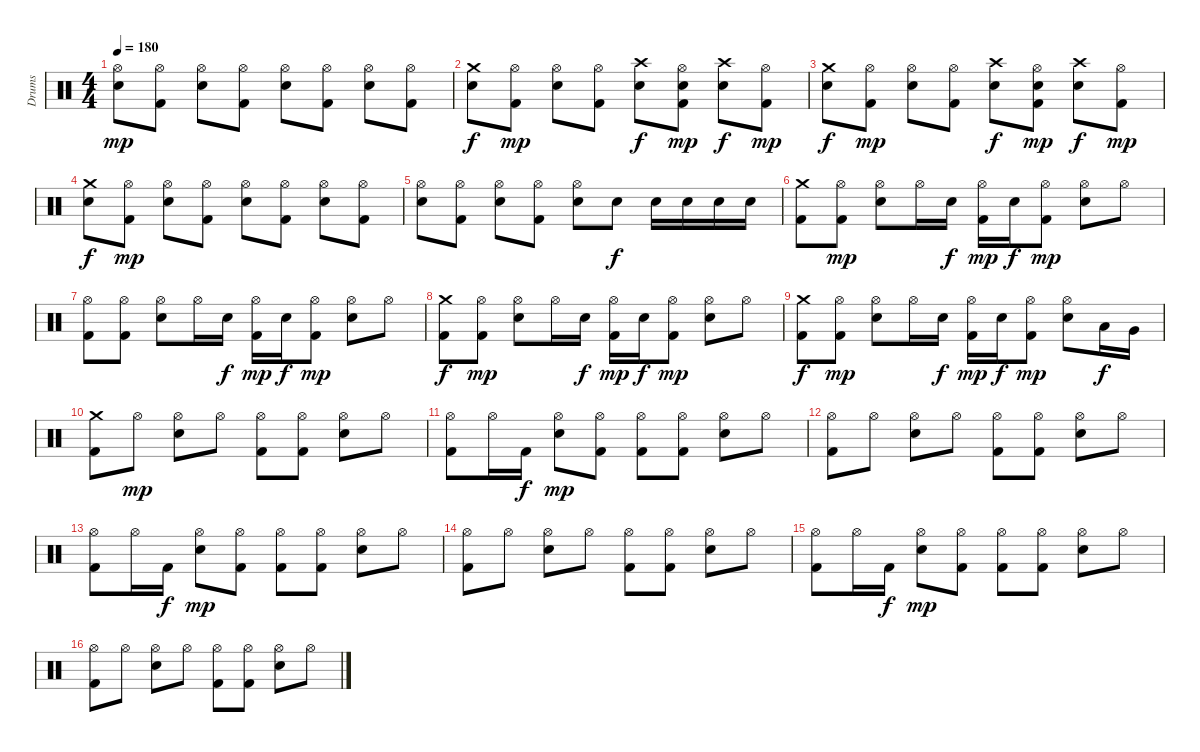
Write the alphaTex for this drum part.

\track ("Drums" "Drums") {instrument percussion}
\staff {score}
\articulation defaults
\ts (4 4)
\tempo 180
\clef neutral
\ks c
("Hi-Hat (open)" "Snare (hit) 2").8{dy mp} ("Hi-Hat (open)" "Kick (hit) 2").8 ("Hi-Hat (open)" "Snare (hit) 2").8 ("Hi-Hat (open)" "Kick (hit) 2").8 ("Hi-Hat (open)" "Snare (hit) 2").8 ("Hi-Hat (open)" "Kick (hit) 2").8 ("Hi-Hat (open)" "Snare (hit) 2").8 ("Hi-Hat (open)" "Kick (hit) 2").8 |
("Crash medium (hit)" "Snare (hit) 2").8{dy f} ("Hi-Hat (open)" "Kick (hit) 2").8{dy mp} ("Hi-Hat (open)" "Snare (hit) 2").8 ("Hi-Hat (open)" "Kick (hit) 2").8 ("Crash high (hit)" "Snare (hit) 2").8{dy f} ("Hi-Hat (open)" "Snare (hit) 2" "Kick (hit) 2").8{dy mp} ("Crash high (hit)" "Snare (hit) 2").8{dy f} ("Hi-Hat (open)" "Kick (hit) 2").8{dy mp} |
("Crash medium (hit)" "Snare (hit) 2").8{dy f} ("Hi-Hat (open)" "Kick (hit) 2").8{dy mp} ("Hi-Hat (open)" "Snare (hit) 2").8 ("Hi-Hat (open)" "Kick (hit) 2").8 ("Crash high (hit)" "Snare (hit) 2").8{dy f} ("Hi-Hat (open)" "Snare (hit) 2" "Kick (hit) 2").8{dy mp} ("Crash high (hit)" "Snare (hit) 2").8{dy f} ("Hi-Hat (open)" "Kick (hit) 2").8{dy mp} |
("Crash medium (hit)" "Snare (hit) 2").8{dy f} ("Hi-Hat (open)" "Kick (hit) 2").8{dy mp} ("Hi-Hat (open)" "Snare (hit) 2").8 ("Hi-Hat (open)" "Kick (hit) 2").8 ("Hi-Hat (open)" "Snare (hit) 2").8 ("Hi-Hat (open)" "Kick (hit) 2").8 ("Hi-Hat (open)" "Snare (hit) 2").8 ("Hi-Hat (open)" "Kick (hit) 2").8 |
("Hi-Hat (open)" "Snare (hit) 2").8 ("Hi-Hat (open)" "Kick (hit) 2").8 ("Hi-Hat (open)" "Snare (hit) 2").8 ("Hi-Hat (open)" "Kick (hit) 2").8 ("Hi-Hat (open)" "Snare (hit) 2").8 "Snare (hit) 2".8{dy f} "Snare (hit) 2".16 "Snare (hit) 2".16 "Snare (hit) 2".16 "Snare (hit) 2".16 |
("Crash medium (hit)" "Kick (hit) 2").8 ("Hi-Hat (open)" "Kick (hit) 2").8{dy mp} ("Hi-Hat (open)" "Snare (hit) 2").8 "Hi-Hat (open)".16 "Snare (hit) 2".16{dy f} ("Hi-Hat (open)" "Kick (hit) 2").16{dy mp} "Snare (hit) 2".16{dy f} ("Hi-Hat (open)" "Kick (hit) 2").8{dy mp} ("Hi-Hat (open)" "Snare (hit) 2").8 "Hi-Hat (open)".8 |
("Hi-Hat (open)" "Kick (hit) 2").8 ("Hi-Hat (open)" "Kick (hit) 2").8 ("Hi-Hat (open)" "Snare (hit) 2").8 "Hi-Hat (open)".16 "Snare (hit) 2".16{dy f} ("Hi-Hat (open)" "Kick (hit) 2").16{dy mp} "Snare (hit) 2".16{dy f} ("Hi-Hat (open)" "Kick (hit) 2").8{dy mp} ("Hi-Hat (open)" "Snare (hit) 2").8 "Hi-Hat (open)".8 |
("Crash medium (hit)" "Kick (hit) 2").8{dy f} ("Hi-Hat (open)" "Kick (hit) 2").8{dy mp} ("Hi-Hat (open)" "Snare (hit) 2").8 "Hi-Hat (open)".16 "Snare (hit) 2".16{dy f} ("Hi-Hat (open)" "Kick (hit) 2").16{dy mp} "Snare (hit) 2".16{dy f} ("Hi-Hat (open)" "Kick (hit) 2").8{dy mp} ("Hi-Hat (open)" "Snare (hit) 2").8 "Hi-Hat (open)".8 |
("Crash medium (hit)" "Kick (hit) 2").8{dy f} ("Hi-Hat (open)" "Kick (hit) 2").8{dy mp} ("Hi-Hat (open)" "Snare (hit) 2").8 "Hi-Hat (open)".16 "Snare (hit) 2".16{dy f} ("Hi-Hat (open)" "Kick (hit) 2").16{dy mp} "Snare (hit) 2".16{dy f} ("Hi-Hat (open)" "Kick (hit) 2").8{dy mp} ("Hi-Hat (open)" "Snare (hit) 2").8 "Low Tom (hit)".16{dy f} "Very Low Tom (hit)".16 |
("Crash medium (hit)" "Kick (hit) 2").8 "Hi-Hat (open)".8{dy mp} ("Hi-Hat (open)" "Snare (hit) 2").8 "Hi-Hat (open)".8 ("Hi-Hat (open)" "Kick (hit) 2").8 ("Hi-Hat (open)" "Kick (hit) 2").8 ("Hi-Hat (open)" "Snare (hit) 2").8 "Hi-Hat (open)".8 |
("Hi-Hat (open)" "Kick (hit) 2").8 "Hi-Hat (open)".16 "Kick (hit) 2".16{dy f} ("Hi-Hat (open)" "Snare (hit) 2").8{dy mp} ("Hi-Hat (open)" "Kick (hit) 2").8 ("Hi-Hat (open)" "Kick (hit) 2").8 ("Hi-Hat (open)" "Kick (hit) 2").8 ("Hi-Hat (open)" "Snare (hit) 2").8 "Hi-Hat (open)".8 |
("Hi-Hat (open)" "Kick (hit) 2").8 "Hi-Hat (open)".8 ("Hi-Hat (open)" "Snare (hit) 2").8 "Hi-Hat (open)".8 ("Hi-Hat (open)" "Kick (hit) 2").8 ("Hi-Hat (open)" "Kick (hit) 2").8 ("Hi-Hat (open)" "Snare (hit) 2").8 "Hi-Hat (open)".8 |
("Hi-Hat (open)" "Kick (hit) 2").8 "Hi-Hat (open)".16 "Kick (hit) 2".16{dy f} ("Hi-Hat (open)" "Snare (hit) 2").8{dy mp} ("Hi-Hat (open)" "Kick (hit) 2").8 ("Hi-Hat (open)" "Kick (hit) 2").8 ("Hi-Hat (open)" "Kick (hit) 2").8 ("Hi-Hat (open)" "Snare (hit) 2").8 "Hi-Hat (open)".8 |
("Hi-Hat (open)" "Kick (hit) 2").8 "Hi-Hat (open)".8 ("Hi-Hat (open)" "Snare (hit) 2").8 "Hi-Hat (open)".8 ("Hi-Hat (open)" "Kick (hit) 2").8 ("Hi-Hat (open)" "Kick (hit) 2").8 ("Hi-Hat (open)" "Snare (hit) 2").8 "Hi-Hat (open)".8 |
("Hi-Hat (open)" "Kick (hit) 2").8 "Hi-Hat (open)".16 "Kick (hit) 2".16{dy f} ("Hi-Hat (open)" "Snare (hit) 2").8{dy mp} ("Hi-Hat (open)" "Kick (hit) 2").8 ("Hi-Hat (open)" "Kick (hit) 2").8 ("Hi-Hat (open)" "Kick (hit) 2").8 ("Hi-Hat (open)" "Snare (hit) 2").8 "Hi-Hat (open)".8 |
("Hi-Hat (open)" "Kick (hit) 2").8 "Hi-Hat (open)".8 ("Hi-Hat (open)" "Snare (hit) 2").8 "Hi-Hat (open)".8 ("Hi-Hat (open)" "Kick (hit) 2").8 ("Hi-Hat (open)" "Kick (hit) 2").8 ("Hi-Hat (open)" "Snare (hit) 2").8 "Hi-Hat (open)".8
